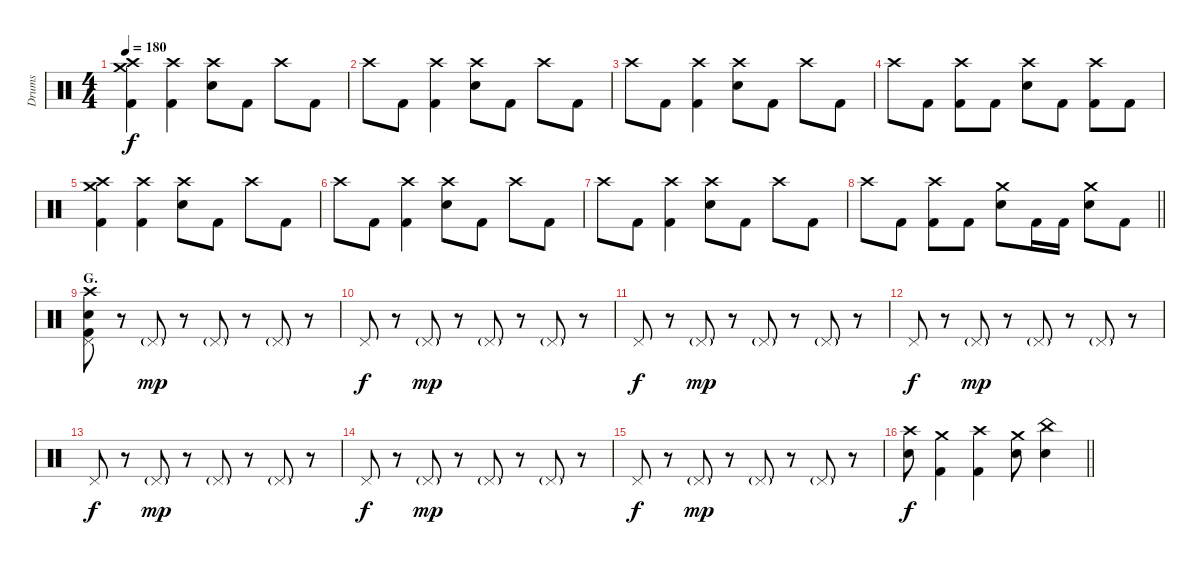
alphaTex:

\track ("Drums" "Drums") {instrument percussion}
\staff {score}
\articulation defaults
\ts (4 4)
\tempo 180
\clef neutral
\ks c
("Crash medium (hit)" "Crash high (hit)" "Kick (hit) 2").4{dy f} ("Crash high (hit)" "Kick (hit) 2").4 ("Crash high (hit)" "Electric Snare (hit)").8 "Kick (hit) 2".8 "Crash high (hit)".8 "Kick (hit) 2".8 |
"Crash high (hit)".8 "Kick (hit) 2".8 ("Crash high (hit)" "Kick (hit) 2").4 ("Crash high (hit)" "Electric Snare (hit)").8 "Kick (hit) 2".8 "Crash high (hit)".8 "Kick (hit) 2".8 |
"Crash high (hit)".8 "Kick (hit) 2".8 ("Crash high (hit)" "Kick (hit) 2").4 ("Crash high (hit)" "Electric Snare (hit)").8 "Kick (hit) 2".8 "Crash high (hit)".8 "Kick (hit) 2".8 |
"Crash high (hit)".8 "Kick (hit) 2".8 ("Crash high (hit)" "Kick (hit) 2").8 "Kick (hit) 2".8 ("Crash high (hit)" "Electric Snare (hit)").8 "Kick (hit) 2".8 ("Crash high (hit)" "Kick (hit) 2").8 "Kick (hit) 2".8 |
("Crash medium (hit)" "Crash high (hit)" "Kick (hit) 2").4 ("Crash high (hit)" "Kick (hit) 2").4 ("Crash high (hit)" "Electric Snare (hit)").8 "Kick (hit) 2".8 "Crash high (hit)".8 "Kick (hit) 2".8 |
"Crash high (hit)".8 "Kick (hit) 2".8 ("Crash high (hit)" "Kick (hit) 2").4 ("Crash high (hit)" "Electric Snare (hit)").8 "Kick (hit) 2".8 "Crash high (hit)".8 "Kick (hit) 2".8 |
"Crash high (hit)".8 "Kick (hit) 2".8 ("Crash high (hit)" "Kick (hit) 2").4 ("Crash high (hit)" "Electric Snare (hit)").8 "Kick (hit) 2".8 "Crash high (hit)".8 "Kick (hit) 2".8 |
\barLineRight lightlight "Crash high (hit)".8 "Kick (hit) 2".8
("Crash high (hit)" "Kick (hit) 2").8 "Kick (hit) 2".8 ("Crash medium (hit)" "Electric Snare (hit)").8 "Kick (hit) 2".16 "Kick (hit) 2".16 ("Crash medium (hit)" "Electric Snare (hit)").8 "Kick (hit) 2".8 |
\section ("" "G.")
("Crash high (hit)" "Pedal Hi-Hat (hit)" "Electric Snare (hit)" "Kick (hit) 2").8 r.8 "Pedal Hi-Hat (hit)"{g}.8{dy mp} r.8 "Pedal Hi-Hat (hit)"{g}.8 r.8 "Pedal Hi-Hat (hit)"{g}.8 r.8 |
"Pedal Hi-Hat (hit)".8{dy f} r.8 "Pedal Hi-Hat (hit)"{g}.8{dy mp} r.8 "Pedal Hi-Hat (hit)"{g}.8 r.8 "Pedal Hi-Hat (hit)"{g}.8 r.8 |
"Pedal Hi-Hat (hit)".8{dy f} r.8 "Pedal Hi-Hat (hit)"{g}.8{dy mp} r.8 "Pedal Hi-Hat (hit)"{g}.8 r.8 "Pedal Hi-Hat (hit)"{g}.8 r.8 |
"Pedal Hi-Hat (hit)".8{dy f} r.8 "Pedal Hi-Hat (hit)"{g}.8{dy mp} r.8 "Pedal Hi-Hat (hit)"{g}.8 r.8 "Pedal Hi-Hat (hit)"{g}.8 r.8 |
"Pedal Hi-Hat (hit)".8{dy f} r.8 "Pedal Hi-Hat (hit)"{g}.8{dy mp} r.8 "Pedal Hi-Hat (hit)"{g}.8 r.8 "Pedal Hi-Hat (hit)"{g}.8 r.8 |
"Pedal Hi-Hat (hit)".8{dy f} r.8 "Pedal Hi-Hat (hit)"{g}.8{dy mp} r.8 "Pedal Hi-Hat (hit)"{g}.8 r.8 "Pedal Hi-Hat (hit)"{g}.8 r.8 |
"Pedal Hi-Hat (hit)".8{dy f} r.8 "Pedal Hi-Hat (hit)"{g}.8{dy mp} r.8 "Pedal Hi-Hat (hit)"{g}.8 r.8 "Pedal Hi-Hat (hit)"{g}.8 r.8 |
\barLineRight lightlight
("Crash high (hit)" "Electric Snare (hit)").8{dy f} ("Crash medium (hit)" "Kick (hit) 2").4 ("Crash high (hit)" "Kick (hit) 2").4 ("Crash medium (hit)" "Electric Snare (hit)").8 ("China (hit)" "Electric Snare (hit)").4
